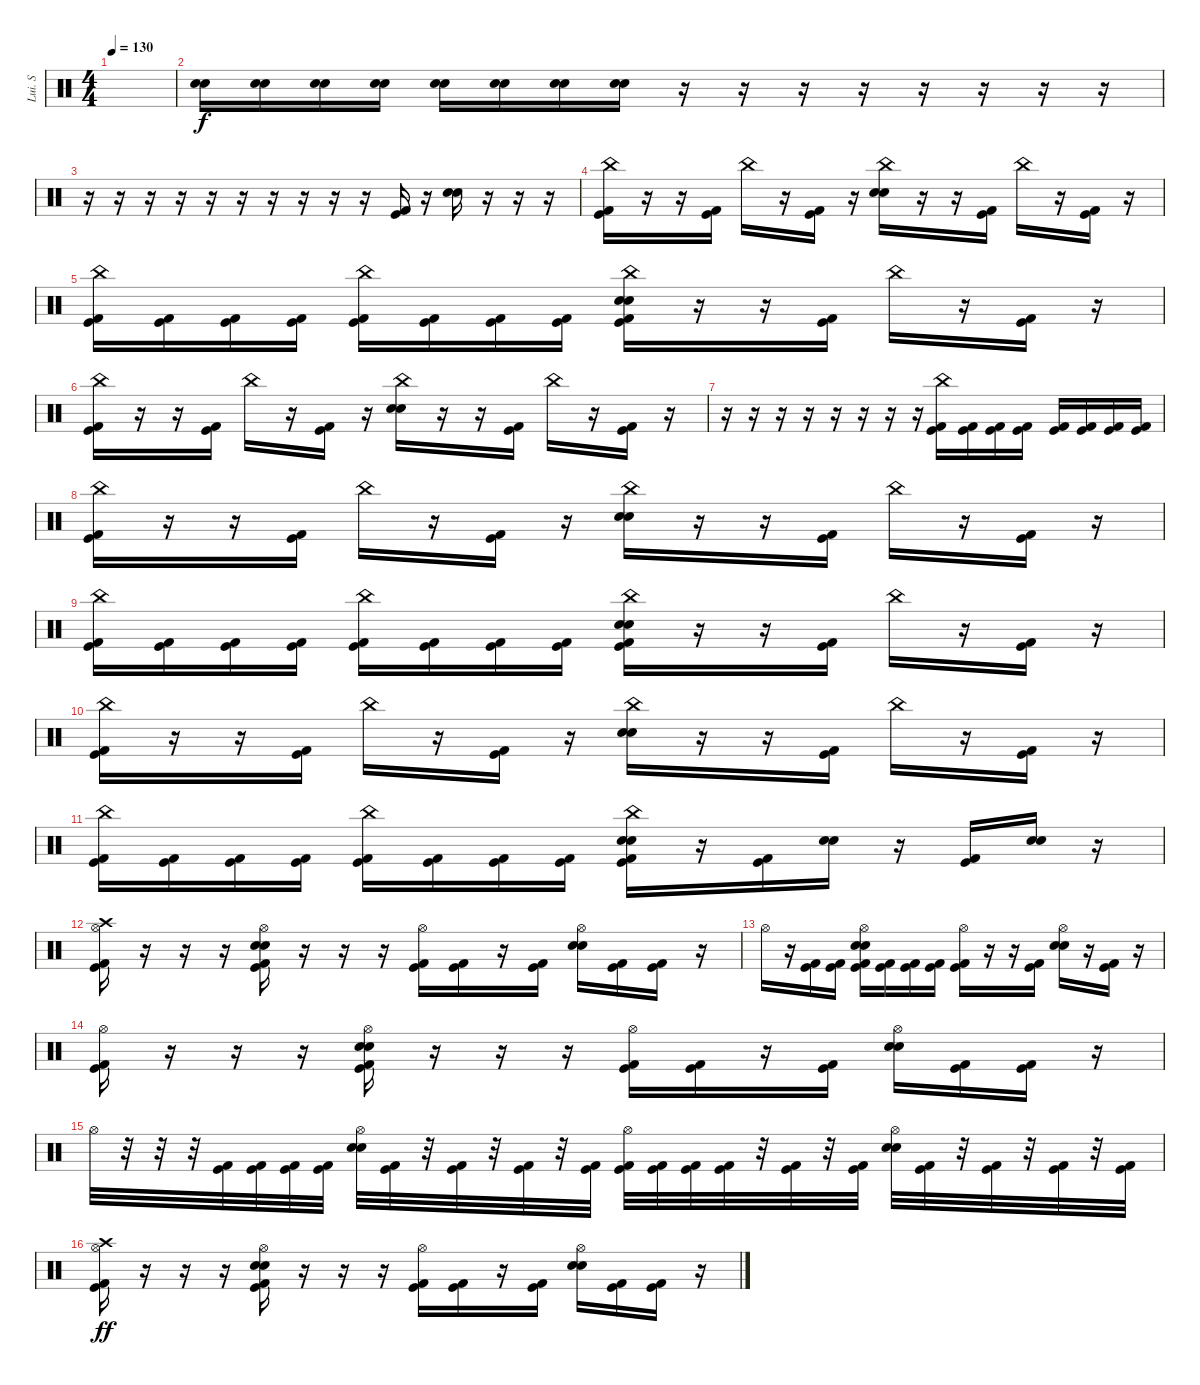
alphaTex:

\track ("Lui. S" "Lui. S") {instrument percussion}
\staff {score}
\articulation defaults
\ts (4 4)
\tempo 130
\clef neutral
\ks c
|
("Electric Snare (hit)" "Snare (hit) 2").16 ("Electric Snare (hit)" "Snare (hit) 2").16 ("Electric Snare (hit)" "Snare (hit) 2").16 ("Electric Snare (hit)" "Snare (hit) 2").16 ("Electric Snare (hit)" "Snare (hit) 2").16 ("Electric Snare (hit)" "Snare (hit) 2").16 ("Electric Snare (hit)" "Snare (hit) 2").16 ("Electric Snare (hit)" "Snare (hit) 2").16 r.16 r.16 r.16 r.16 r.16 r.16 r.16 r.16 |
r.16 r.16 r.16 r.16 r.16 r.16 r.16 r.16 r.16 r.16 ("Kick (hit)" "Kick (hit) 2").16 r.16 ("Electric Snare (hit)" "Snare (hit) 2").16 r.16 r.16 r.16 |
("China (hit)" "Kick (hit)" "Kick (hit) 2").16 r.16 r.16 ("Kick (hit)" "Kick (hit) 2").16 "China (hit)".16 r.16 ("Kick (hit)" "Kick (hit) 2").16 r.16 ("China (hit)" "Snare (hit) 2" "Electric Snare (hit)").16 r.16 r.16 ("Kick (hit)" "Kick (hit) 2").16 "China (hit)".16 r.16 ("Kick (hit)" "Kick (hit) 2").16 r.16 |
("China (hit)" "Kick (hit)" "Kick (hit) 2").16 ("Kick (hit)" "Kick (hit) 2").16 ("Kick (hit)" "Kick (hit) 2").16 ("Kick (hit)" "Kick (hit) 2").16 ("China (hit)" "Kick (hit)" "Kick (hit) 2").16 ("Kick (hit)" "Kick (hit) 2").16 ("Kick (hit)" "Kick (hit) 2").16 ("Kick (hit)" "Kick (hit) 2").16 ("China (hit)" "Snare (hit) 2" "Electric Snare (hit)" "Kick (hit)" "Kick (hit) 2").16 r.16 r.16 ("Kick (hit)" "Kick (hit) 2").16 "China (hit)".16 r.16 ("Kick (hit)" "Kick (hit) 2").16 r.16 |
("China (hit)" "Kick (hit)" "Kick (hit) 2").16 r.16 r.16 ("Kick (hit)" "Kick (hit) 2").16 "China (hit)".16 r.16 ("Kick (hit)" "Kick (hit) 2").16 r.16 ("China (hit)" "Snare (hit) 2" "Electric Snare (hit)").16 r.16 r.16 ("Kick (hit)" "Kick (hit) 2").16 "China (hit)".16 r.16 ("Kick (hit)" "Kick (hit) 2").16 r.16 |
r.16 r.16 r.16 r.16 r.16 r.16 r.16 r.16 ("China (hit)" "Kick (hit) 2" "Kick (hit)").16 ("Kick (hit)" "Kick (hit) 2").16 ("Kick (hit)" "Kick (hit) 2").16 ("Kick (hit)" "Kick (hit) 2").16 ("Kick (hit)" "Kick (hit) 2").16 ("Kick (hit)" "Kick (hit) 2").16 ("Kick (hit)" "Kick (hit) 2").16 ("Kick (hit)" "Kick (hit) 2").16 |
("China (hit)" "Kick (hit)" "Kick (hit) 2").16 r.16 r.16 ("Kick (hit)" "Kick (hit) 2").16 "China (hit)".16 r.16 ("Kick (hit)" "Kick (hit) 2").16 r.16 ("China (hit)" "Snare (hit) 2" "Electric Snare (hit)").16 r.16 r.16 ("Kick (hit)" "Kick (hit) 2").16 "China (hit)".16 r.16 ("Kick (hit)" "Kick (hit) 2").16 r.16 |
("China (hit)" "Kick (hit)" "Kick (hit) 2").16 ("Kick (hit)" "Kick (hit) 2").16 ("Kick (hit)" "Kick (hit) 2").16 ("Kick (hit)" "Kick (hit) 2").16 ("China (hit)" "Kick (hit)" "Kick (hit) 2").16 ("Kick (hit)" "Kick (hit) 2").16 ("Kick (hit)" "Kick (hit) 2").16 ("Kick (hit)" "Kick (hit) 2").16 ("China (hit)" "Snare (hit) 2" "Electric Snare (hit)" "Kick (hit)" "Kick (hit) 2").16 r.16 r.16 ("Kick (hit)" "Kick (hit) 2").16 "China (hit)".16 r.16 ("Kick (hit)" "Kick (hit) 2").16 r.16 |
("China (hit)" "Kick (hit)" "Kick (hit) 2").16 r.16 r.16 ("Kick (hit)" "Kick (hit) 2").16 "China (hit)".16 r.16 ("Kick (hit)" "Kick (hit) 2").16 r.16 ("China (hit)" "Snare (hit) 2" "Electric Snare (hit)").16 r.16 r.16 ("Kick (hit)" "Kick (hit) 2").16 "China (hit)".16 r.16 ("Kick (hit)" "Kick (hit) 2").16 r.16 |
("China (hit)" "Kick (hit)" "Kick (hit) 2").16 ("Kick (hit)" "Kick (hit) 2").16 ("Kick (hit)" "Kick (hit) 2").16 ("Kick (hit)" "Kick (hit) 2").16 ("China (hit)" "Kick (hit)" "Kick (hit) 2").16 ("Kick (hit)" "Kick (hit) 2").16 ("Kick (hit)" "Kick (hit) 2").16 ("Kick (hit)" "Kick (hit) 2").16 ("China (hit)" "Snare (hit) 2" "Electric Snare (hit)" "Kick (hit)" "Kick (hit) 2").16 r.16 ("Kick (hit)" "Kick (hit) 2").16 ("Snare (hit) 2" "Electric Snare (hit)").16 r.16 ("Kick (hit)" "Kick (hit) 2").16 ("Snare (hit) 2" "Electric Snare (hit)").16 r.16 |
("Crash high (hit)" "Hi-Hat (open)" "Kick (hit)" "Kick (hit) 2").16 r.16 r.16 r.16 ("Hi-Hat (open)" "Electric Snare (hit)" "Snare (hit) 2" "Kick (hit)" "Kick (hit) 2").16 r.16 r.16 r.16 ("Hi-Hat (open)" "Kick (hit)" "Kick (hit) 2").16 ("Kick (hit)" "Kick (hit) 2").16 r.16 ("Kick (hit)" "Kick (hit) 2").16 ("Hi-Hat (open)" "Electric Snare (hit)" "Snare (hit) 2").16 ("Kick (hit)" "Kick (hit) 2").16 ("Kick (hit)" "Kick (hit) 2").16 r.16 |
"Hi-Hat (open)".16 r.16 ("Kick (hit)" "Kick (hit) 2").16 ("Kick (hit)" "Kick (hit) 2").16 ("Hi-Hat (open)" "Electric Snare (hit)" "Snare (hit) 2" "Kick (hit)" "Kick (hit) 2").16 ("Kick (hit)" "Kick (hit) 2").16 ("Kick (hit)" "Kick (hit) 2").16 ("Kick (hit)" "Kick (hit) 2").16 ("Hi-Hat (open)" "Kick (hit)" "Kick (hit) 2").16 r.16 r.16 ("Kick (hit)" "Kick (hit) 2").16 ("Hi-Hat (open)" "Electric Snare (hit)" "Snare (hit) 2").16 r.16 ("Kick (hit)" "Kick (hit) 2").16 r.16 |
("Hi-Hat (open)" "Kick (hit)" "Kick (hit) 2").16 r.16 r.16 r.16 ("Hi-Hat (open)" "Electric Snare (hit)" "Snare (hit) 2" "Kick (hit)" "Kick (hit) 2").16 r.16 r.16 r.16 ("Hi-Hat (open)" "Kick (hit)" "Kick (hit) 2").16 ("Kick (hit)" "Kick (hit) 2").16 r.16 ("Kick (hit)" "Kick (hit) 2").16 ("Hi-Hat (open)" "Electric Snare (hit)" "Snare (hit) 2").16 ("Kick (hit)" "Kick (hit) 2").16 ("Kick (hit)" "Kick (hit) 2").16 r.16 |
"Hi-Hat (open)".32{dy f} r.32 r.32 r.32 ("Kick (hit)" "Kick (hit) 2").32 ("Kick (hit)" "Kick (hit) 2").32 ("Kick (hit)" "Kick (hit) 2").32 ("Kick (hit)" "Kick (hit) 2").32 ("Hi-Hat (open)" "Electric Snare (hit)" "Snare (hit) 2").32 ("Kick (hit) 2" "Kick (hit)").32 r.32 ("Kick (hit) 2" "Kick (hit)").32 r.32 ("Kick (hit) 2" "Kick (hit)").32 r.32 ("Kick (hit) 2" "Kick (hit)").32 ("Hi-Hat (open)" "Kick (hit) 2" "Kick (hit)").32 ("Kick (hit) 2" "Kick (hit)").32 ("Kick (hit) 2" "Kick (hit)").32 ("Kick (hit) 2" "Kick (hit)").32 r.32 ("Kick (hit)" "Kick (hit) 2").32 r.32 ("Kick (hit)" "Kick (hit) 2").32 ("Hi-Hat (open)" "Electric Snare (hit)" "Snare (hit) 2").32 ("Kick (hit) 2" "Kick (hit)").32 r.32 ("Kick (hit) 2" "Kick (hit)").32 r.32 ("Kick (hit) 2" "Kick (hit)").32 r.32 ("Kick (hit) 2" "Kick (hit)").32 |
("Crash high (hit)" "Hi-Hat (open)" "Kick (hit)" "Kick (hit) 2").16{dy ff} r.16 r.16 r.16 ("Hi-Hat (open)" "Electric Snare (hit)" "Snare (hit) 2" "Kick (hit)" "Kick (hit) 2").16 r.16 r.16 r.16 ("Hi-Hat (open)" "Kick (hit)" "Kick (hit) 2").16 ("Kick (hit)" "Kick (hit) 2").16 r.16 ("Kick (hit)" "Kick (hit) 2").16 ("Hi-Hat (open)" "Electric Snare (hit)" "Snare (hit) 2").16 ("Kick (hit)" "Kick (hit) 2").16 ("Kick (hit)" "Kick (hit) 2").16 r.16
